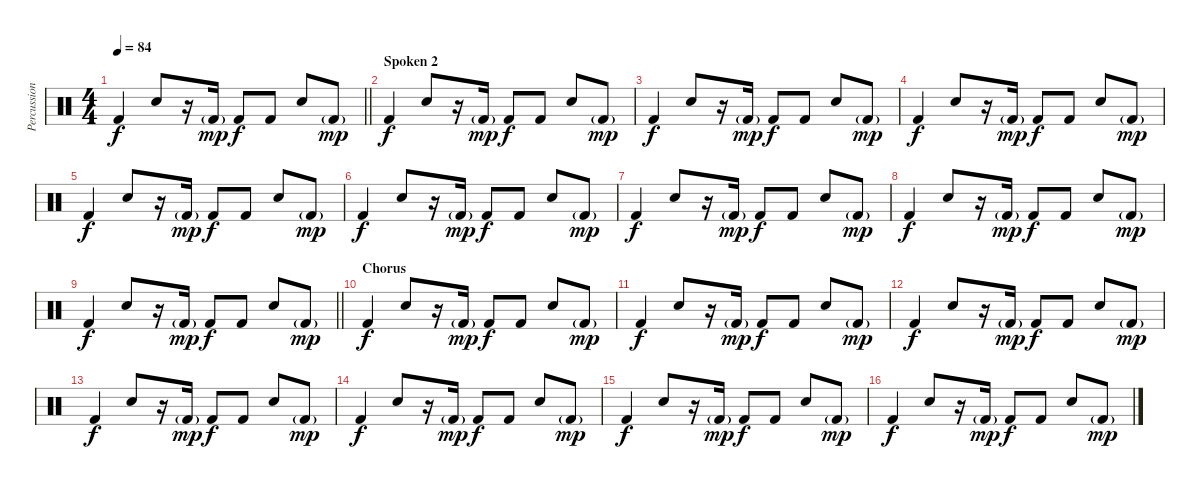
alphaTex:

\track ("Percussion" "Percussion") {instrument percussion}
\staff {score}
\articulation defaults
\ts (4 4)
\tempo 84
\clef neutral
\barLineRight lightlight
\ks c "Kick (hit) 2".4{dy f} "Snare (hit) 2".8
r.16 "Kick (hit) 2"{g}.16{dy mp} "Kick (hit) 2".8{dy f} "Kick (hit) 2".8 "Snare (hit) 2".8 "Kick (hit) 2"{g}.8{dy mp} |
\section ("" "Spoken 2")
"Kick (hit) 2".4{dy f} "Snare (hit) 2".8 r.16 "Kick (hit) 2"{g}.16{dy mp} "Kick (hit) 2".8{dy f} "Kick (hit) 2".8 "Snare (hit) 2".8 "Kick (hit) 2"{g}.8{dy mp} |
"Kick (hit) 2".4{dy f} "Snare (hit) 2".8 r.16 "Kick (hit) 2"{g}.16{dy mp} "Kick (hit) 2".8{dy f} "Kick (hit) 2".8 "Snare (hit) 2".8 "Kick (hit) 2"{g}.8{dy mp} |
"Kick (hit) 2".4{dy f} "Snare (hit) 2".8 r.16 "Kick (hit) 2"{g}.16{dy mp} "Kick (hit) 2".8{dy f} "Kick (hit) 2".8 "Snare (hit) 2".8 "Kick (hit) 2"{g}.8{dy mp} |
"Kick (hit) 2".4{dy f} "Snare (hit) 2".8 r.16 "Kick (hit) 2"{g}.16{dy mp} "Kick (hit) 2".8{dy f} "Kick (hit) 2".8 "Snare (hit) 2".8 "Kick (hit) 2"{g}.8{dy mp} |
"Kick (hit) 2".4{dy f} "Snare (hit) 2".8 r.16 "Kick (hit) 2"{g}.16{dy mp} "Kick (hit) 2".8{dy f} "Kick (hit) 2".8 "Snare (hit) 2".8 "Kick (hit) 2"{g}.8{dy mp} |
"Kick (hit) 2".4{dy f} "Snare (hit) 2".8 r.16 "Kick (hit) 2"{g}.16{dy mp} "Kick (hit) 2".8{dy f} "Kick (hit) 2".8 "Snare (hit) 2".8 "Kick (hit) 2"{g}.8{dy mp} |
"Kick (hit) 2".4{dy f} "Snare (hit) 2".8 r.16 "Kick (hit) 2"{g}.16{dy mp} "Kick (hit) 2".8{dy f} "Kick (hit) 2".8 "Snare (hit) 2".8 "Kick (hit) 2"{g}.8{dy mp} |
\barLineRight lightlight "Kick (hit) 2".4{dy f} "Snare (hit) 2".8
r.16 "Kick (hit) 2"{g}.16{dy mp} "Kick (hit) 2".8{dy f} "Kick (hit) 2".8 "Snare (hit) 2".8 "Kick (hit) 2"{g}.8{dy mp} |
\section ("" "Chorus")
"Kick (hit) 2".4{dy f} "Snare (hit) 2".8 r.16 "Kick (hit) 2"{g}.16{dy mp} "Kick (hit) 2".8{dy f} "Kick (hit) 2".8 "Snare (hit) 2".8 "Kick (hit) 2"{g}.8{dy mp} |
"Kick (hit) 2".4{dy f} "Snare (hit) 2".8 r.16 "Kick (hit) 2"{g}.16{dy mp} "Kick (hit) 2".8{dy f} "Kick (hit) 2".8 "Snare (hit) 2".8 "Kick (hit) 2"{g}.8{dy mp} |
"Kick (hit) 2".4{dy f} "Snare (hit) 2".8 r.16 "Kick (hit) 2"{g}.16{dy mp} "Kick (hit) 2".8{dy f} "Kick (hit) 2".8 "Snare (hit) 2".8 "Kick (hit) 2"{g}.8{dy mp} |
"Kick (hit) 2".4{dy f} "Snare (hit) 2".8 r.16 "Kick (hit) 2"{g}.16{dy mp} "Kick (hit) 2".8{dy f} "Kick (hit) 2".8 "Snare (hit) 2".8 "Kick (hit) 2"{g}.8{dy mp} |
"Kick (hit) 2".4{dy f} "Snare (hit) 2".8 r.16 "Kick (hit) 2"{g}.16{dy mp} "Kick (hit) 2".8{dy f} "Kick (hit) 2".8 "Snare (hit) 2".8 "Kick (hit) 2"{g}.8{dy mp} |
"Kick (hit) 2".4{dy f} "Snare (hit) 2".8 r.16 "Kick (hit) 2"{g}.16{dy mp} "Kick (hit) 2".8{dy f} "Kick (hit) 2".8 "Snare (hit) 2".8 "Kick (hit) 2"{g}.8{dy mp} |
"Kick (hit) 2".4{dy f} "Snare (hit) 2".8 r.16 "Kick (hit) 2"{g}.16{dy mp} "Kick (hit) 2".8{dy f} "Kick (hit) 2".8 "Snare (hit) 2".8 "Kick (hit) 2"{g}.8{dy mp}
